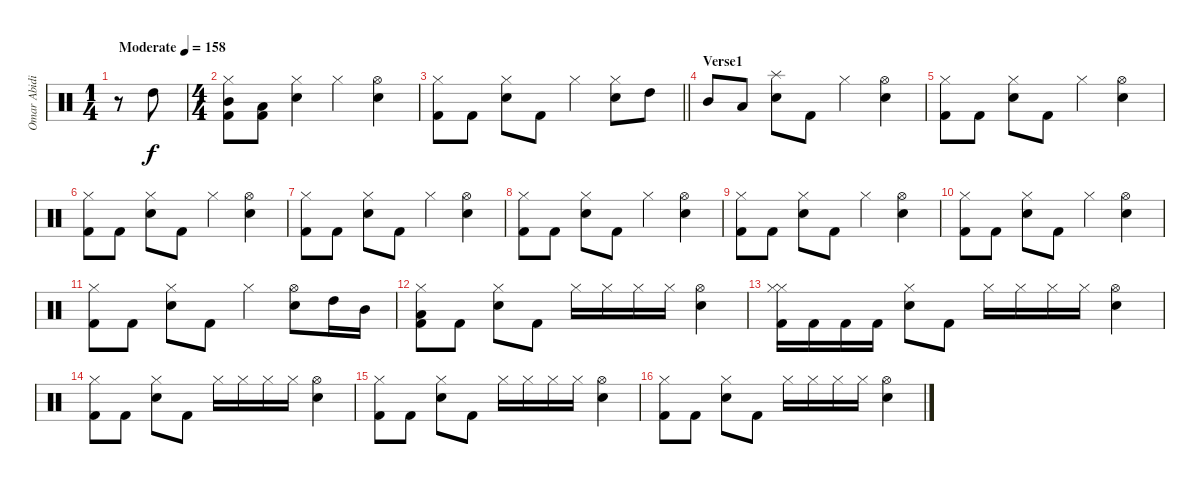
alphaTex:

\track ("Omar Abidi" "Omar Abidi") {instrument percussion}
\staff {score}
\articulation defaults
\ts (1 4)
\tempo (158 "Moderate")
\clef neutral
\ks c
r.8{dy f volume 7} "High Tom (hit)".8 |
\ts (4 4)
("Hi-Hat (closed)" "Mid Tom (hit)" "Kick (hit) 2").8 ("Low Tom (hit)" "Kick (hit) 2").8 ("Hi-Hat (closed)" "Snare (hit) 2").4 "Hi-Hat (closed)".4 ("Hi-Hat (open)" "Snare (hit) 2").4 |
\barLineRight lightlight
("Hi-Hat (closed)" "Kick (hit) 2").8 "Kick (hit) 2".8 ("Hi-Hat (closed)" "Snare (hit) 2").8 "Kick (hit) 2".8 "Hi-Hat (closed)".4 ("Hi-Hat (closed)" "Snare (hit) 2").8 "High Tom (hit)".8 |
\section ("" "Verse1")
"Mid Tom (hit)".8{volume 13} "Low Tom (hit)".8 ("Splash (hit)" "Snare (hit) 2").8 "Kick (hit) 2".8 "Hi-Hat (closed)".4 ("Hi-Hat (open)" "Snare (hit) 2").4 |
("Hi-Hat (closed)" "Kick (hit) 2").8 "Kick (hit) 2".8 ("Hi-Hat (closed)" "Snare (hit) 2").8 "Kick (hit) 2".8 "Hi-Hat (closed)".4 ("Hi-Hat (open)" "Snare (hit) 2").4 |
("Hi-Hat (closed)" "Kick (hit) 2").8 "Kick (hit) 2".8 ("Hi-Hat (closed)" "Snare (hit) 2").8 "Kick (hit) 2".8 "Hi-Hat (closed)".4 ("Hi-Hat (open)" "Snare (hit) 2").4 |
("Hi-Hat (closed)" "Kick (hit) 2").8 "Kick (hit) 2".8 ("Hi-Hat (closed)" "Snare (hit) 2").8 "Kick (hit) 2".8 "Hi-Hat (closed)".4 ("Hi-Hat (open)" "Snare (hit) 2").4 |
("Hi-Hat (closed)" "Kick (hit) 2").8 "Kick (hit) 2".8 ("Hi-Hat (closed)" "Snare (hit) 2").8 "Kick (hit) 2".8 "Hi-Hat (closed)".4 ("Hi-Hat (open)" "Snare (hit) 2").4 |
("Hi-Hat (closed)" "Kick (hit) 2").8 "Kick (hit) 2".8 ("Hi-Hat (closed)" "Snare (hit) 2").8 "Kick (hit) 2".8 "Hi-Hat (closed)".4 ("Hi-Hat (open)" "Snare (hit) 2").4 |
("Hi-Hat (closed)" "Kick (hit) 2").8 "Kick (hit) 2".8 ("Hi-Hat (closed)" "Snare (hit) 2").8 "Kick (hit) 2".8 "Hi-Hat (closed)".4 ("Hi-Hat (open)" "Snare (hit) 2").4 |
("Hi-Hat (closed)" "Kick (hit) 2").8 "Kick (hit) 2".8 ("Hi-Hat (closed)" "Snare (hit) 2").8 "Kick (hit) 2".8 "Hi-Hat (closed)".4 ("Hi-Hat (open)" "Snare (hit) 2").8 "High Tom (hit)".16 "Mid Tom (hit)".16 |
("Hi-Hat (closed)" "Low Tom (hit)" "Kick (hit) 2").8 "Kick (hit) 2".8 ("Hi-Hat (closed)" "Snare (hit) 2").8 "Kick (hit) 2".8 "Hi-Hat (closed)".16 "Hi-Hat (closed)".16 "Hi-Hat (closed)".16 "Hi-Hat (closed)".16 ("Hi-Hat (open)" "Snare (hit) 2").4 |
("Hi-Hat (closed)" "Hi-Hat (closed)" "Kick (hit) 2").16 "Kick (hit) 2".16 "Kick (hit) 2".16 "Kick (hit) 2".16 ("Hi-Hat (closed)" "Snare (hit) 2").8 "Kick (hit) 2".8 "Hi-Hat (closed)".16 "Hi-Hat (closed)".16 "Hi-Hat (closed)".16 "Hi-Hat (closed)".16 ("Hi-Hat (open)" "Snare (hit) 2").4 |
("Hi-Hat (closed)" "Kick (hit) 2").8 "Kick (hit) 2".8 ("Hi-Hat (closed)" "Snare (hit) 2").8 "Kick (hit) 2".8 "Hi-Hat (closed)".16 "Hi-Hat (closed)".16 "Hi-Hat (closed)".16 "Hi-Hat (closed)".16 ("Hi-Hat (open)" "Snare (hit) 2").4 |
("Hi-Hat (closed)" "Kick (hit) 2").8 "Kick (hit) 2".8 ("Hi-Hat (closed)" "Snare (hit) 2").8 "Kick (hit) 2".8 "Hi-Hat (closed)".16 "Hi-Hat (closed)".16 "Hi-Hat (closed)".16 "Hi-Hat (closed)".16 ("Hi-Hat (open)" "Snare (hit) 2").4 |
("Hi-Hat (closed)" "Kick (hit) 2").8 "Kick (hit) 2".8 ("Hi-Hat (closed)" "Snare (hit) 2").8 "Kick (hit) 2".8 "Hi-Hat (closed)".16 "Hi-Hat (closed)".16 "Hi-Hat (closed)".16 "Hi-Hat (closed)".16 ("Hi-Hat (open)" "Snare (hit) 2").4
